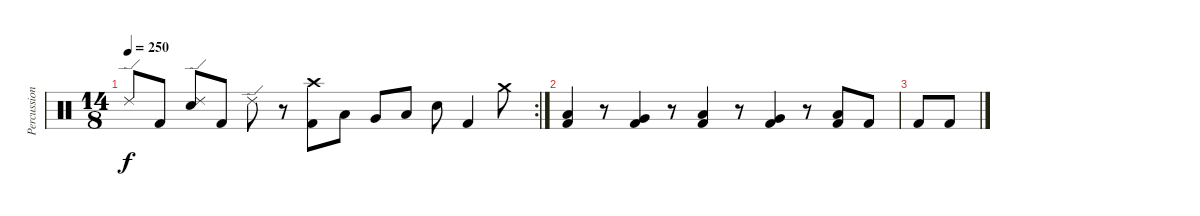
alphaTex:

\track ("Percussions" "Percussion") {instrument percussion}
\staff {score}
\articulation defaults
\rc 2
\ts (14 8)
\tempo 250
\clef neutral
\ks c "Ride (edge) 2".8{dy f} "Kick (hit) 2".8
("Ride (edge) 2" "Electric Snare (hit)").8 "Kick (hit) 2".8 "Ride (edge) 2".8 r.8 ("Crash high (hit)" "Kick (hit) 2").8 "Low Tom (hit)".8 "Very Low Tom (hit)".8 "Low Floor Tom (hit)".8 "Electric Snare (hit)".8 "Kick (hit) 2".4 "Crash medium (hit)".8 |
("Low Tom (hit)" "Kick (hit) 2").4 r.8 ("Very Low Tom (hit)" "Kick (hit) 2").4 r.8 ("Low Tom (hit)" "Kick (hit) 2").4 r.8 ("Very Low Tom (hit)" "Kick (hit) 2").4 r.8 ("Low Floor Tom (hit)" "Kick (hit) 2").8 "Kick (hit) 2".8 |
"Kick (hit) 2".8 "Kick (hit) 2".8
